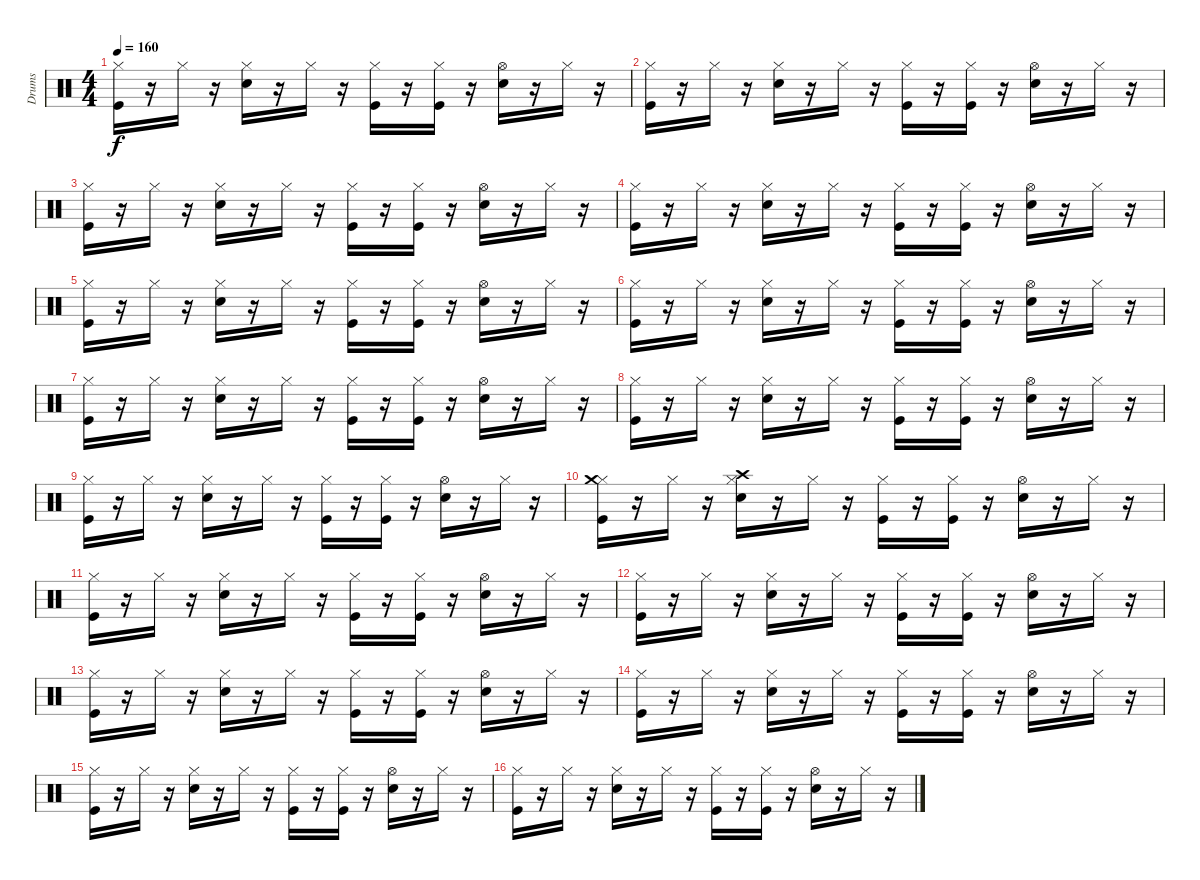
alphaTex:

\track ("Drums" "Drums") {instrument percussion}
\staff {score}
\articulation defaults
\ts (4 4)
\tempo 160
\clef neutral
\ks c
("Hi-Hat (closed)" "Kick (hit)").16{dy f} r.16 "Hi-Hat (closed)".16 r.16 ("Hi-Hat (closed)" "Snare (hit) 2").16 r.16 "Hi-Hat (closed)".16 r.16 ("Hi-Hat (closed)" "Kick (hit)").16 r.16 ("Kick (hit)" "Hi-Hat (closed)").16 r.16 ("Hi-Hat (open)" "Snare (hit) 2").16 r.16 "Hi-Hat (closed)".16 r.16 |
("Hi-Hat (closed)" "Kick (hit)").16 r.16 "Hi-Hat (closed)".16 r.16 ("Hi-Hat (closed)" "Snare (hit) 2").16 r.16 "Hi-Hat (closed)".16 r.16 ("Hi-Hat (closed)" "Kick (hit)").16 r.16 ("Kick (hit)" "Hi-Hat (closed)").16 r.16 ("Hi-Hat (open)" "Snare (hit) 2").16 r.16 "Hi-Hat (closed)".16 r.16 |
("Hi-Hat (closed)" "Kick (hit)").16 r.16 "Hi-Hat (closed)".16 r.16 ("Hi-Hat (closed)" "Snare (hit) 2").16 r.16 "Hi-Hat (closed)".16 r.16 ("Hi-Hat (closed)" "Kick (hit)").16 r.16 ("Kick (hit)" "Hi-Hat (closed)").16 r.16 ("Hi-Hat (open)" "Snare (hit) 2").16 r.16 "Hi-Hat (closed)".16 r.16 |
("Hi-Hat (closed)" "Kick (hit)").16 r.16 "Hi-Hat (closed)".16 r.16 ("Hi-Hat (closed)" "Snare (hit) 2").16 r.16 "Hi-Hat (closed)".16 r.16 ("Hi-Hat (closed)" "Kick (hit)").16 r.16 ("Kick (hit)" "Hi-Hat (closed)").16 r.16 ("Hi-Hat (open)" "Snare (hit) 2").16 r.16 "Hi-Hat (closed)".16 r.16 |
("Hi-Hat (closed)" "Kick (hit)").16 r.16 "Hi-Hat (closed)".16 r.16 ("Hi-Hat (closed)" "Snare (hit) 2").16 r.16 "Hi-Hat (closed)".16 r.16 ("Hi-Hat (closed)" "Kick (hit)").16 r.16 ("Kick (hit)" "Hi-Hat (closed)").16 r.16 ("Hi-Hat (open)" "Snare (hit) 2").16 r.16 "Hi-Hat (closed)".16 r.16 |
("Hi-Hat (closed)" "Kick (hit)").16 r.16 "Hi-Hat (closed)".16 r.16 ("Hi-Hat (closed)" "Snare (hit) 2").16 r.16 "Hi-Hat (closed)".16 r.16 ("Hi-Hat (closed)" "Kick (hit)").16 r.16 ("Kick (hit)" "Hi-Hat (closed)").16 r.16 ("Hi-Hat (open)" "Snare (hit) 2").16 r.16 "Hi-Hat (closed)".16 r.16 |
("Hi-Hat (closed)" "Kick (hit)").16 r.16 "Hi-Hat (closed)".16 r.16 ("Hi-Hat (closed)" "Snare (hit) 2").16 r.16 "Hi-Hat (closed)".16 r.16 ("Hi-Hat (closed)" "Kick (hit)").16 r.16 ("Kick (hit)" "Hi-Hat (closed)").16 r.16 ("Hi-Hat (open)" "Snare (hit) 2").16 r.16 "Hi-Hat (closed)".16 r.16 |
("Hi-Hat (closed)" "Kick (hit)").16 r.16 "Hi-Hat (closed)".16 r.16 ("Hi-Hat (closed)" "Snare (hit) 2").16 r.16 "Hi-Hat (closed)".16 r.16 ("Hi-Hat (closed)" "Kick (hit)").16 r.16 ("Kick (hit)" "Hi-Hat (closed)").16 r.16 ("Hi-Hat (open)" "Snare (hit) 2").16 r.16 "Hi-Hat (closed)".16 r.16 |
("Hi-Hat (closed)" "Kick (hit)").16 r.16 "Hi-Hat (closed)".16 r.16 ("Hi-Hat (closed)" "Snare (hit) 2").16 r.16 "Hi-Hat (closed)".16 r.16 ("Hi-Hat (closed)" "Kick (hit)").16 r.16 ("Kick (hit)" "Hi-Hat (closed)").16 r.16 ("Hi-Hat (open)" "Snare (hit) 2").16 r.16 "Hi-Hat (closed)".16 r.16 |
("Hi-Hat (closed)" "Kick (hit)" "Crash medium (hit)").16 r.16 "Hi-Hat (closed)".16 r.16 ("Hi-Hat (closed)" "Snare (hit) 2" "Crash high (hit)").16 r.16 "Hi-Hat (closed)".16 r.16 ("Hi-Hat (closed)" "Kick (hit)").16 r.16 ("Kick (hit)" "Hi-Hat (closed)").16 r.16 ("Hi-Hat (open)" "Snare (hit) 2").16 r.16 "Hi-Hat (closed)".16 r.16 |
("Hi-Hat (closed)" "Kick (hit)").16 r.16 "Hi-Hat (closed)".16 r.16 ("Hi-Hat (closed)" "Snare (hit) 2").16 r.16 "Hi-Hat (closed)".16 r.16 ("Hi-Hat (closed)" "Kick (hit)").16 r.16 ("Kick (hit)" "Hi-Hat (closed)").16 r.16 ("Hi-Hat (open)" "Snare (hit) 2").16 r.16 "Hi-Hat (closed)".16 r.16 |
("Hi-Hat (closed)" "Kick (hit)").16 r.16 "Hi-Hat (closed)".16 r.16 ("Hi-Hat (closed)" "Snare (hit) 2").16 r.16 "Hi-Hat (closed)".16 r.16 ("Hi-Hat (closed)" "Kick (hit)").16 r.16 ("Kick (hit)" "Hi-Hat (closed)").16 r.16 ("Hi-Hat (open)" "Snare (hit) 2").16 r.16 "Hi-Hat (closed)".16 r.16 |
("Hi-Hat (closed)" "Kick (hit)").16 r.16 "Hi-Hat (closed)".16 r.16 ("Hi-Hat (closed)" "Snare (hit) 2").16 r.16 "Hi-Hat (closed)".16 r.16 ("Hi-Hat (closed)" "Kick (hit)").16 r.16 ("Kick (hit)" "Hi-Hat (closed)").16 r.16 ("Hi-Hat (open)" "Snare (hit) 2").16 r.16 "Hi-Hat (closed)".16 r.16 |
("Hi-Hat (closed)" "Kick (hit)").16 r.16 "Hi-Hat (closed)".16 r.16 ("Hi-Hat (closed)" "Snare (hit) 2").16 r.16 "Hi-Hat (closed)".16 r.16 ("Hi-Hat (closed)" "Kick (hit)").16 r.16 ("Kick (hit)" "Hi-Hat (closed)").16 r.16 ("Hi-Hat (open)" "Snare (hit) 2").16 r.16 "Hi-Hat (closed)".16 r.16 |
("Hi-Hat (closed)" "Kick (hit)").16 r.16 "Hi-Hat (closed)".16 r.16 ("Hi-Hat (closed)" "Snare (hit) 2").16 r.16 "Hi-Hat (closed)".16 r.16 ("Hi-Hat (closed)" "Kick (hit)").16 r.16 ("Kick (hit)" "Hi-Hat (closed)").16 r.16 ("Hi-Hat (open)" "Snare (hit) 2").16 r.16 "Hi-Hat (closed)".16 r.16 |
("Hi-Hat (closed)" "Kick (hit)").16 r.16 "Hi-Hat (closed)".16 r.16 ("Hi-Hat (closed)" "Snare (hit) 2").16 r.16 "Hi-Hat (closed)".16 r.16 ("Hi-Hat (closed)" "Kick (hit)").16 r.16 ("Kick (hit)" "Hi-Hat (closed)").16 r.16 ("Hi-Hat (open)" "Snare (hit) 2").16 r.16 "Hi-Hat (closed)".16 r.16
